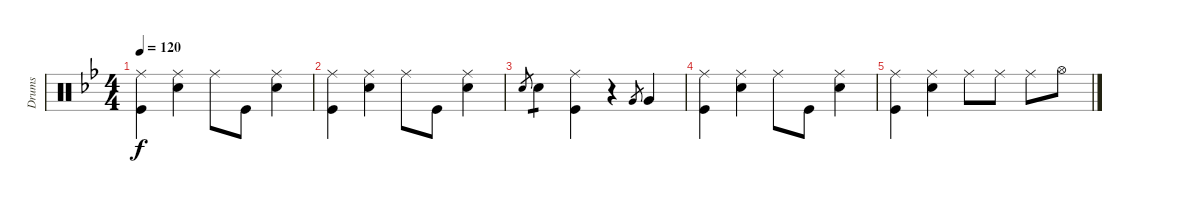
\track ("Drums" "Drums") {instrument percussion}
\staff {score}
\articulation defaults
\ts (4 4)
\tempo 120
\clef neutral
\ks bb
("Ride (middle)" "Kick (hit)").4{dy f} ("Ride (middle)" "Snare (hit) 2").4 "Ride (middle)".8 "Kick (hit)".8 ("Ride (middle)" "Snare (hit) 2").4 |
("Ride (middle)" "Kick (hit)").4 ("Ride (middle)" "Snare (hit) 2").4 "Ride (middle)".8 "Kick (hit)".8 ("Ride (middle)" "Snare (hit) 2").4 |
"Snare (hit) 2".8{gr} "Snare (hit) 2".4{tp 1} ("Ride (middle)" "Kick (hit)").4 r.4 "Very Low Tom (hit)".8{gr} "Very Low Tom (hit)".4 |
("Ride (middle)" "Kick (hit)").4 ("Ride (middle)" "Snare (hit) 2").4 "Ride (middle)".8 "Kick (hit)".8 ("Ride (middle)" "Snare (hit) 2").4 |
("Ride (middle)" "Kick (hit)").4 ("Ride (middle)" "Snare (hit) 2").4 "Ride (middle)".8 "Ride (middle)".8 "Ride (middle)".8 "Hi-Hat (open)".8
